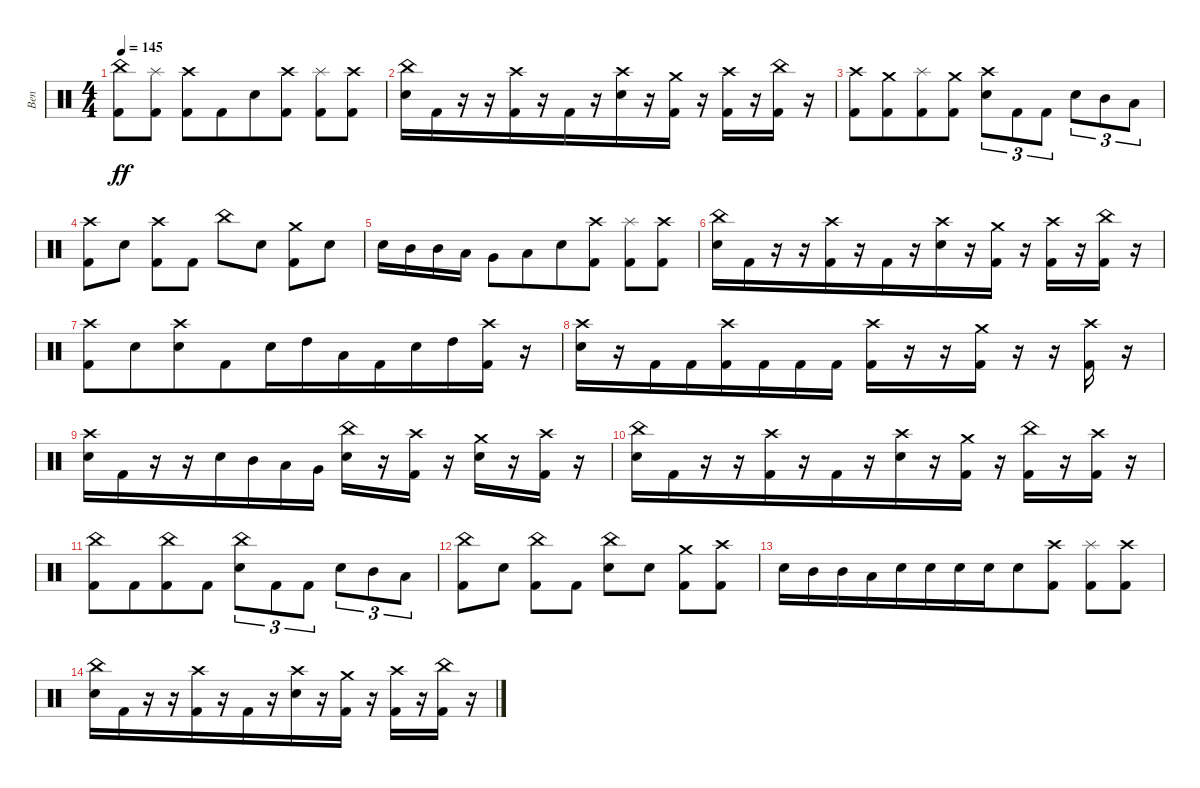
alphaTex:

\track ("Ben" "Ben") {instrument percussion}
\staff {score}
\articulation defaults
\ts (4 4)
\tempo 145
\clef neutral
\ks c
("China (hit)" "Kick (hit) 2").8{dy ff} ("Splash (hit)" "Kick (hit) 2").8 ("Crash high (hit)" "Kick (hit) 2").8{beam merge} "Kick (hit) 2".8{beam merge} "Electric Snare (hit)".8{beam merge} ("Crash high (hit)" "Kick (hit) 2").8 ("Kick (hit) 2" "Splash (hit)").8{beam merge} ("Crash high (hit)" "Kick (hit) 2").8 |
("China (hit)" "Electric Snare (hit)").16{beam merge} "Kick (hit) 2".16{beam merge} r.16 r.16 ("Crash high (hit)" "Kick (hit) 2").16 r.16 "Kick (hit) 2".16{beam merge} r.16 ("Crash high (hit)" "Electric Snare (hit)").16 r.16{beam merge} ("Kick (hit) 2" "Crash medium (hit)").16 r.16{beam merge} ("Crash high (hit)" "Kick (hit) 2").16 r.16{beam merge} ("China (hit)" "Kick (hit) 2").16 r.16 |
("Crash high (hit)" "Kick (hit) 2").8 ("Crash medium (hit)" "Kick (hit) 2").8{beam merge} ("Splash (hit)" "Kick (hit) 2").8{beam merge} ("Crash medium (hit)" "Kick (hit) 2").8 ("Electric Snare (hit)" "Crash high (hit)").8{tu (3 2)} "Kick (hit) 2".8{tu (3 2)} "Kick (hit) 2".8{tu (3 2)} "Electric Snare (hit)".8{tu (3 2)} "Mid Tom (hit)".8{tu (3 2)} "Low Tom (hit)".8{tu (3 2)} |
("Crash high (hit)" "Kick (hit) 2").8 "Electric Snare (hit)".8 ("Crash high (hit)" "Kick (hit) 2").8 "Kick (hit) 2".8 "China (hit)".8 "Electric Snare (hit)".8 ("Crash medium (hit)" "Kick (hit) 2").8{beam merge} "Electric Snare (hit)".8 |
"Electric Snare (hit)".16{beam merge} "Mid Tom (hit)".16 "Mid Tom (hit)".16 "Low Tom (hit)".16 "Very Low Tom (hit)".8{beam merge} "Low Floor Tom (hit)".8{beam merge} "Electric Snare (hit)".8{beam merge} ("Crash high (hit)" "Kick (hit) 2").8 ("Kick (hit) 2" "Splash (hit)").8{beam merge} ("Crash high (hit)" "Kick (hit) 2").8 |
("China (hit)" "Electric Snare (hit)").16{beam merge} "Kick (hit) 2".16{beam merge} r.16 r.16 ("Crash high (hit)" "Kick (hit) 2").16 r.16 "Kick (hit) 2".16{beam merge} r.16 ("Crash high (hit)" "Electric Snare (hit)").16 r.16{beam merge} ("Kick (hit) 2" "Crash medium (hit)").16 r.16{beam merge} ("Crash high (hit)" "Kick (hit) 2").16 r.16{beam merge} ("China (hit)" "Kick (hit) 2").16 r.16 |
("Kick (hit) 2" "Crash high (hit)").8 "Electric Snare (hit)".8{beam merge} ("Electric Snare (hit)" "Crash high (hit)").8 "Kick (hit) 2".8{beam merge} "Electric Snare (hit)".16{beam merge} "High Tom (hit)".16 "Low Tom (hit)".16{beam merge} "Kick (hit) 2".16{beam merge} "Electric Snare (hit)".16{beam merge} "High Tom (hit)".16{beam merge} ("Crash high (hit)" "Kick (hit) 2").16{beam merge} r.16 |
("Crash high (hit)" "Electric Snare (hit)").16 r.16 "Kick (hit) 2".16{beam merge} "Kick (hit) 2".16{beam merge} ("Kick (hit) 2" "Crash high (hit)").16{beam merge} "Kick (hit) 2".16 "Kick (hit) 2".16{beam merge} "Kick (hit) 2".16 ("Crash high (hit)" "Kick (hit) 2").16 r.16 r.16 ("Crash medium (hit)" "Kick (hit) 2").16 r.16{beam merge} r.16 ("Crash high (hit)" "Kick (hit) 2").16 r.16 |
("Electric Snare (hit)" "Crash high (hit)").16{beam merge} "Kick (hit) 2".16{beam merge} r.16 r.16 "Electric Snare (hit)".16{beam merge} "Mid Tom (hit)".16 "Low Tom (hit)".16 "Very Low Tom (hit)".16 ("Electric Snare (hit)" "China (hit)").16 r.16{beam merge} ("Crash high (hit)" "Kick (hit) 2").16 r.16 ("Electric Snare (hit)" "Crash medium (hit)").16{beam merge} r.16 ("Crash high (hit)" "Kick (hit) 2").16 r.16 |
("China (hit)" "Electric Snare (hit)").16{beam merge} "Kick (hit) 2".16{beam merge} r.16 r.16 ("Crash high (hit)" "Kick (hit) 2").16 r.16 "Kick (hit) 2".16{beam merge} r.16 ("Crash high (hit)" "Electric Snare (hit)").16 r.16{beam merge} ("Kick (hit) 2" "Crash medium (hit)").16 r.16{beam merge} ("China (hit)" "Kick (hit) 2").16 r.16{beam merge} ("Crash high (hit)" "Kick (hit) 2").16 r.16 |
("China (hit)" "Kick (hit) 2").8 "Kick (hit) 2".8{beam merge} ("China (hit)" "Kick (hit) 2").8{beam merge} "Kick (hit) 2".8 ("China (hit)" "Electric Snare (hit)").8{tu (3 2)} "Kick (hit) 2".8{tu (3 2)} "Kick (hit) 2".8{tu (3 2)} "Electric Snare (hit)".8{tu (3 2)} "Mid Tom (hit)".8{tu (3 2)} "Low Tom (hit)".8{tu (3 2)} |
("China (hit)" "Kick (hit) 2").8 "Electric Snare (hit)".8 ("China (hit)" "Kick (hit) 2").8 "Kick (hit) 2".8 ("China (hit)" "Electric Snare (hit)").8 "Electric Snare (hit)".8 ("Crash medium (hit)" "Kick (hit) 2").8{beam merge} ("Crash high (hit)" "Kick (hit) 2").8 |
"Electric Snare (hit)".16{beam merge} "Mid Tom (hit)".16 "Mid Tom (hit)".16 "Low Tom (hit)".16{beam merge} "Electric Snare (hit)".16{beam merge} "Electric Snare (hit)".16 "Electric Snare (hit)".16{beam merge} "Electric Snare (hit)".16{beam merge} "Electric Snare (hit)".8{beam merge} ("Crash high (hit)" "Kick (hit) 2").8 ("Kick (hit) 2" "Splash (hit)").8{beam merge} ("Crash high (hit)" "Kick (hit) 2").8 |
("China (hit)" "Electric Snare (hit)").16{beam merge} "Kick (hit) 2".16{beam merge} r.16 r.16 ("Crash high (hit)" "Kick (hit) 2").16 r.16 "Kick (hit) 2".16{beam merge} r.16 ("Crash high (hit)" "Electric Snare (hit)").16 r.16{beam merge} ("Kick (hit) 2" "Crash medium (hit)").16 r.16{beam merge} ("Crash high (hit)" "Kick (hit) 2").16 r.16{beam merge} ("China (hit)" "Kick (hit) 2").16 r.16
